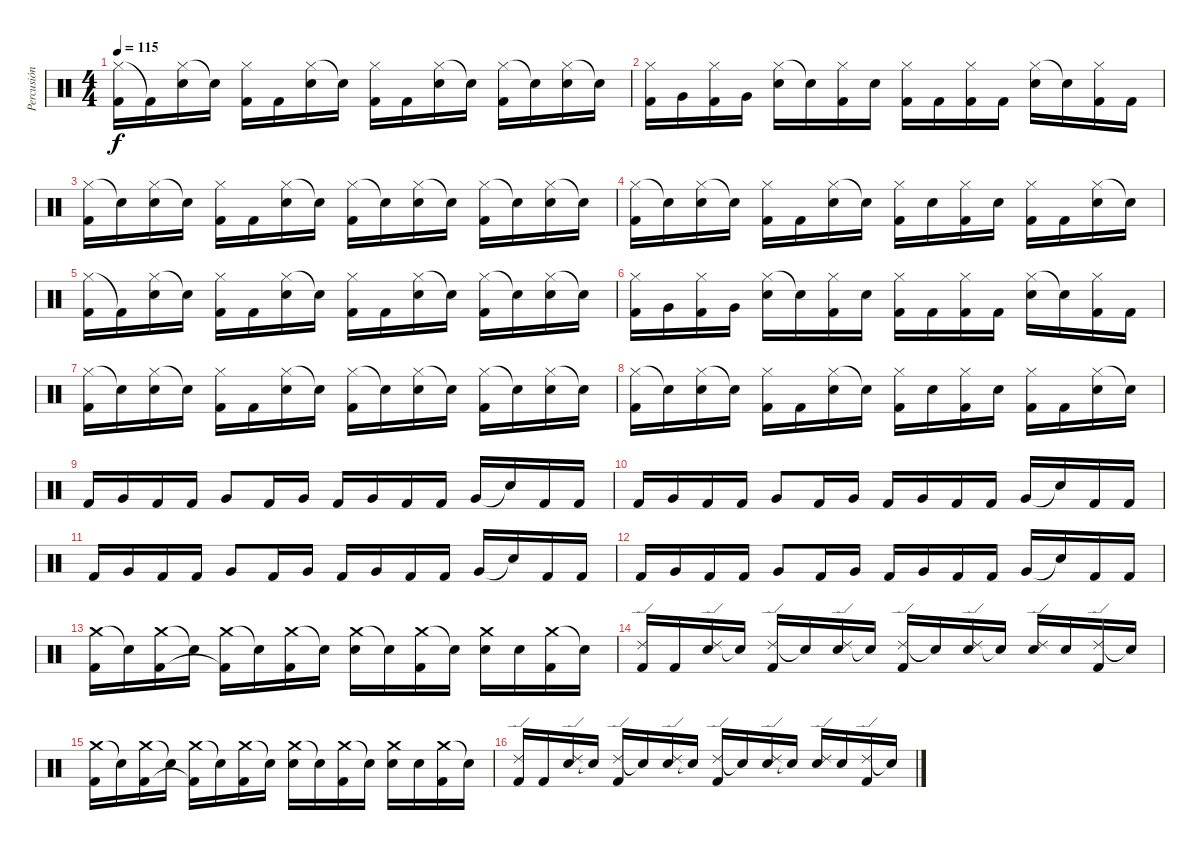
\track ("Percusión" "Percusión") {instrument percussion}
\staff {score}
\articulation defaults
\ts (4 4)
\tempo 115
\clef neutral
\ks c
("Hi-Hat (closed)" "Kick (hit) 2").16{dy f} "Kick (hit) 2"{t}.16 ("Hi-Hat (closed)" "Electric Snare (hit)").16 "Snare (hit)"{t}.16 ("Hi-Hat (closed)" "Kick (hit) 2").16 "Kick (hit) 2".16 ("Hi-Hat (closed)" "Electric Snare (hit)").16 "Snare (hit)"{t}.16 ("Hi-Hat (closed)" "Kick (hit) 2").16 "Kick (hit) 2".16 ("Hi-Hat (closed)" "Electric Snare (hit)").16 "Snare (hit)"{t}.16 ("Hi-Hat (closed)" "Kick (hit) 2").16 "Snare (hit)"{t}.16 ("Hi-Hat (closed)" "Electric Snare (hit)").16 "Snare (hit)"{t}.16 |
("Hi-Hat (closed)" "Kick (hit) 2").16 "Very Low Tom (hit)".16 ("Hi-Hat (closed)" "Kick (hit) 2").16 "Very Low Tom (hit)".16 ("Hi-Hat (closed)" "Electric Snare (hit)").16 "Snare (hit)"{t}.16 ("Hi-Hat (closed)" "Kick (hit) 2").16 "Electric Snare (hit)".16 ("Hi-Hat (closed)" "Kick (hit) 2").16 "Kick (hit) 2".16 ("Hi-Hat (closed)" "Kick (hit) 2").16 "Kick (hit) 2".16 ("Hi-Hat (closed)" "Electric Snare (hit)").16 "Snare (hit)"{t}.16 ("Hi-Hat (closed)" "Kick (hit) 2").16 "Kick (hit) 2".16 |
("Hi-Hat (closed)" "Kick (hit) 2").16 "Snare (hit)"{t}.16 ("Hi-Hat (closed)" "Electric Snare (hit)").16 "Snare (hit)"{t}.16 ("Hi-Hat (closed)" "Kick (hit) 2").16 "Kick (hit) 2".16 ("Hi-Hat (closed)" "Electric Snare (hit)").16 "Snare (hit)"{t}.16 ("Hi-Hat (closed)" "Kick (hit) 2").16 "Snare (hit)"{t}.16 ("Hi-Hat (closed)" "Electric Snare (hit)").16 "Snare (hit)"{t}.16 ("Hi-Hat (closed)" "Kick (hit) 2").16 "Snare (hit)"{t}.16 ("Hi-Hat (closed)" "Electric Snare (hit)").16 "Snare (hit)"{t}.16 |
("Hi-Hat (closed)" "Kick (hit) 2").16 "Snare (hit)"{t}.16 ("Hi-Hat (closed)" "Electric Snare (hit)").16 "Snare (hit)"{t}.16 ("Hi-Hat (closed)" "Kick (hit) 2").16 "Kick (hit) 2".16 ("Hi-Hat (closed)" "Electric Snare (hit)").16 "Snare (hit)"{t}.16 ("Hi-Hat (closed)" "Kick (hit) 2").16 "Electric Snare (hit)".16 ("Hi-Hat (closed)" "Kick (hit) 2").16 "Electric Snare (hit)".16 ("Hi-Hat (closed)" "Kick (hit) 2").16 "Kick (hit) 2".16 ("Hi-Hat (closed)" "Electric Snare (hit)").16 "Snare (hit)"{t}.16 |
("Hi-Hat (closed)" "Kick (hit) 2").16 "Kick (hit) 2"{t}.16 ("Hi-Hat (closed)" "Electric Snare (hit)").16 "Snare (hit)"{t}.16 ("Hi-Hat (closed)" "Kick (hit) 2").16 "Kick (hit) 2".16 ("Hi-Hat (closed)" "Electric Snare (hit)").16 "Snare (hit)"{t}.16 ("Hi-Hat (closed)" "Kick (hit) 2").16 "Kick (hit) 2".16 ("Hi-Hat (closed)" "Electric Snare (hit)").16 "Snare (hit)"{t}.16 ("Hi-Hat (closed)" "Kick (hit) 2").16 "Snare (hit)"{t}.16 ("Hi-Hat (closed)" "Electric Snare (hit)").16 "Snare (hit)"{t}.16 |
("Hi-Hat (closed)" "Kick (hit) 2").16 "Very Low Tom (hit)".16 ("Hi-Hat (closed)" "Kick (hit) 2").16 "Very Low Tom (hit)".16 ("Hi-Hat (closed)" "Electric Snare (hit)").16 "Snare (hit)"{t}.16 ("Hi-Hat (closed)" "Kick (hit) 2").16 "Electric Snare (hit)".16 ("Hi-Hat (closed)" "Kick (hit) 2").16 "Kick (hit) 2".16 ("Hi-Hat (closed)" "Kick (hit) 2").16 "Kick (hit) 2".16 ("Hi-Hat (closed)" "Electric Snare (hit)").16 "Snare (hit)"{t}.16 ("Hi-Hat (closed)" "Kick (hit) 2").16 "Kick (hit) 2".16 |
("Hi-Hat (closed)" "Kick (hit) 2").16 "Snare (hit)"{t}.16 ("Hi-Hat (closed)" "Electric Snare (hit)").16 "Snare (hit)"{t}.16 ("Hi-Hat (closed)" "Kick (hit) 2").16 "Kick (hit) 2".16 ("Hi-Hat (closed)" "Electric Snare (hit)").16 "Snare (hit)"{t}.16 ("Hi-Hat (closed)" "Kick (hit) 2").16 "Snare (hit)"{t}.16 ("Hi-Hat (closed)" "Electric Snare (hit)").16 "Snare (hit)"{t}.16 ("Hi-Hat (closed)" "Kick (hit) 2").16 "Snare (hit)"{t}.16 ("Hi-Hat (closed)" "Electric Snare (hit)").16 "Snare (hit)"{t}.16 |
("Hi-Hat (closed)" "Kick (hit) 2").16 "Snare (hit)"{t}.16 ("Hi-Hat (closed)" "Electric Snare (hit)").16 "Snare (hit)"{t}.16 ("Hi-Hat (closed)" "Kick (hit) 2").16 "Kick (hit) 2".16 ("Hi-Hat (closed)" "Electric Snare (hit)").16 "Snare (hit)"{t}.16 ("Hi-Hat (closed)" "Kick (hit) 2").16 "Electric Snare (hit)".16 ("Hi-Hat (closed)" "Kick (hit) 2").16 "Electric Snare (hit)".16 ("Hi-Hat (closed)" "Kick (hit) 2").16 "Kick (hit) 2".16 ("Hi-Hat (closed)" "Electric Snare (hit)").16 "Snare (hit)"{t}.16 |
"Kick (hit) 2".16 "Very Low Tom (hit)".16 "Kick (hit) 2".16 "Kick (hit) 2".16 "Very Low Tom (hit)".8 "Kick (hit) 2".16 "Very Low Tom (hit)".16 "Kick (hit) 2".16 "Very Low Tom (hit)".16 "Kick (hit) 2".16 "Kick (hit) 2".16 "Very Low Tom (hit)".16 "Snare (hit)"{t}.16 "Kick (hit) 2".16 "Kick (hit) 2".16 |
"Kick (hit) 2".16 "Very Low Tom (hit)".16 "Kick (hit) 2".16 "Kick (hit) 2".16 "Very Low Tom (hit)".8 "Kick (hit) 2".16 "Very Low Tom (hit)".16 "Kick (hit) 2".16 "Very Low Tom (hit)".16 "Kick (hit) 2".16 "Kick (hit) 2".16 "Very Low Tom (hit)".16 "Snare (hit)"{t}.16 "Kick (hit) 2".16 "Kick (hit) 2".16 |
"Kick (hit) 2".16 "Very Low Tom (hit)".16 "Kick (hit) 2".16 "Kick (hit) 2".16 "Very Low Tom (hit)".8 "Kick (hit) 2".16 "Very Low Tom (hit)".16 "Kick (hit) 2".16 "Very Low Tom (hit)".16 "Kick (hit) 2".16 "Kick (hit) 2".16 "Very Low Tom (hit)".16 "Snare (hit)"{t}.16 "Kick (hit) 2".16 "Kick (hit) 2".16 |
"Kick (hit) 2".16 "Very Low Tom (hit)".16 "Kick (hit) 2".16 "Kick (hit) 2".16 "Very Low Tom (hit)".8 "Kick (hit) 2".16 "Very Low Tom (hit)".16 "Kick (hit) 2".16 "Very Low Tom (hit)".16 "Kick (hit) 2".16 "Kick (hit) 2".16 "Very Low Tom (hit)".16 "Snare (hit)"{t}.16 "Kick (hit) 2".16 "Kick (hit) 2".16 |
("Crash medium (hit)" "Kick (hit) 2").16 "Snare (hit)"{t}.16 ("Crash medium (hit)" "Kick (hit) 2").16 "Snare (hit)"{t}.16 ("Crash medium (hit)" "Kick (hit) 2"{t}).16 "Snare (hit)"{t}.16 ("Crash medium (hit)" "Kick (hit) 2").16 "Snare (hit)"{t}.16 ("Crash medium (hit)" "Electric Snare (hit)").16 "Snare (hit)"{t}.16 ("Crash medium (hit)" "Kick (hit) 2").16 "Snare (hit)"{t}.16 ("Crash medium (hit)" "Electric Snare (hit)").16 "Electric Snare (hit)".16 ("Crash medium (hit)" "Kick (hit) 2").16 "Electric Snare (hit)"{t}.16 |
("Ride (edge) 2" "Kick (hit) 2").16 "Kick (hit) 2".16 ("Ride (edge) 2" "Electric Snare (hit)").16 "Snare (hit)"{t}.16 ("Ride (edge) 2" "Kick (hit) 2").16 "Snare (hit)"{t}.16 ("Ride (edge) 2" "Electric Snare (hit)").16 "Snare (hit)"{t}.16 ("Ride (edge) 2" "Kick (hit) 2").16 "Snare (hit)"{t}.16 ("Ride (edge) 2" "Electric Snare (hit)").16 "Snare (hit)"{t}.16 ("Ride (edge) 2" "Electric Snare (hit)").16 "Electric Snare (hit)".16 ("Ride (edge) 2" "Kick (hit) 2").16 "Snare (hit)"{t}.16 |
("Crash medium (hit)" "Kick (hit) 2").16 "Snare (hit)"{t}.16 ("Crash medium (hit)" "Kick (hit) 2").16 "Snare (hit)"{t}.16 ("Crash medium (hit)" "Kick (hit) 2"{t}).16 "Snare (hit)"{t}.16 ("Crash medium (hit)" "Kick (hit) 2").16 "Snare (hit)"{t}.16 ("Crash medium (hit)" "Electric Snare (hit)").16 "Snare (hit)"{t}.16 ("Crash medium (hit)" "Kick (hit) 2").16 "Snare (hit)"{t}.16 ("Crash medium (hit)" "Electric Snare (hit)").16 "Electric Snare (hit)".16 ("Crash medium (hit)" "Kick (hit) 2").16 "Electric Snare (hit)"{t}.16 |
("Ride (edge) 2" "Kick (hit) 2").16 "Kick (hit) 2".16 ("Ride (edge) 2" "Electric Snare (hit)").16 "Snare (hit)"{t}.16 ("Ride (edge) 2" "Kick (hit) 2").16 "Snare (hit)"{t}.16 ("Ride (edge) 2" "Electric Snare (hit)").16 "Snare (hit)"{t}.16 ("Ride (edge) 2" "Kick (hit) 2").16 "Snare (hit)"{t}.16 ("Ride (edge) 2" "Electric Snare (hit)").16 "Snare (hit)"{t}.16 ("Ride (edge) 2" "Electric Snare (hit)").16 "Electric Snare (hit)".16 ("Ride (edge) 2" "Kick (hit) 2").16 "Snare (hit)"{t}.16
